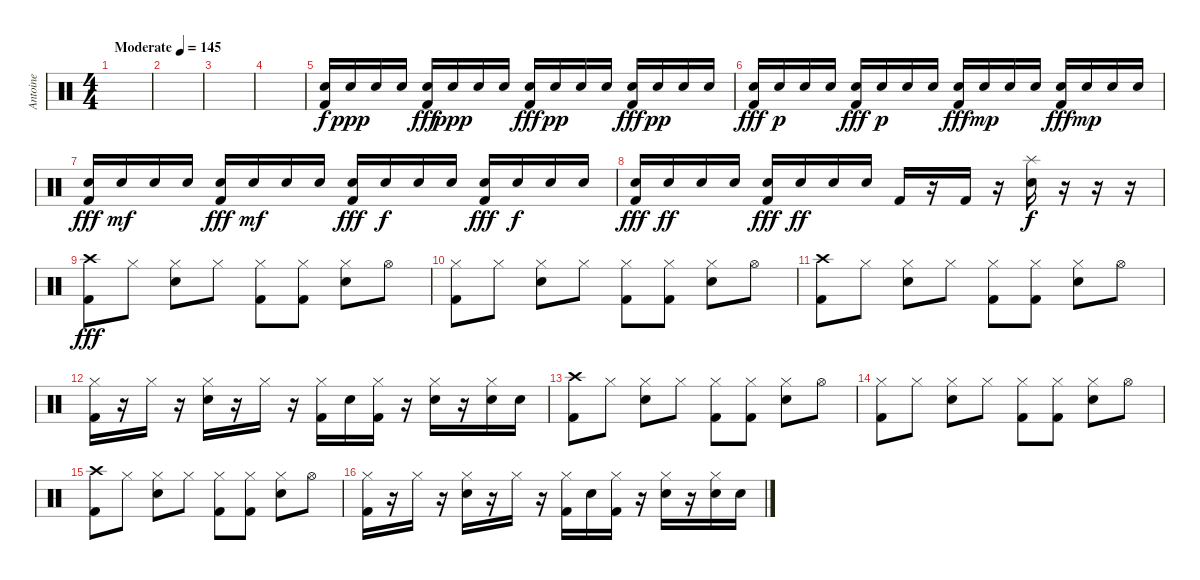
\track ("Antoine" "Antoine") {instrument percussion}
\staff {score}
\articulation defaults
\ts (4 4)
\tempo (145 "Moderate")
\clef neutral
\ks c
|
|
|
|
("Snare (hit) 2" "Kick (hit) 2").16 "Snare (hit) 2".16{dy ppp} "Snare (hit) 2".16 "Snare (hit) 2".16 ("Snare (hit) 2" "Kick (hit) 2").16{dy fff} "Snare (hit) 2".16{dy ppp} "Snare (hit) 2".16 "Snare (hit) 2".16 ("Snare (hit) 2" "Kick (hit) 2").16{dy fff} "Snare (hit) 2".16{dy pp} "Snare (hit) 2".16 "Snare (hit) 2".16 ("Snare (hit) 2" "Kick (hit) 2").16{dy fff} "Snare (hit) 2".16{dy pp} "Snare (hit) 2".16 "Snare (hit) 2".16 |
("Snare (hit) 2" "Kick (hit) 2").16{dy fff} "Snare (hit) 2".16{dy p} "Snare (hit) 2".16 "Snare (hit) 2".16 ("Snare (hit) 2" "Kick (hit) 2").16{dy fff} "Snare (hit) 2".16{dy p} "Snare (hit) 2".16 "Snare (hit) 2".16 ("Snare (hit) 2" "Kick (hit) 2").16{dy fff} "Snare (hit) 2".16{dy mp} "Snare (hit) 2".16 "Snare (hit) 2".16 ("Snare (hit) 2" "Kick (hit) 2").16{dy fff} "Snare (hit) 2".16{dy mp} "Snare (hit) 2".16 "Snare (hit) 2".16 |
("Snare (hit) 2" "Kick (hit) 2").16{dy fff} "Snare (hit) 2".16{dy mf} "Snare (hit) 2".16 "Snare (hit) 2".16 ("Snare (hit) 2" "Kick (hit) 2").16{dy fff} "Snare (hit) 2".16{dy mf} "Snare (hit) 2".16 "Snare (hit) 2".16 ("Snare (hit) 2" "Kick (hit) 2").16{dy fff} "Snare (hit) 2".16{dy f} "Snare (hit) 2".16 "Snare (hit) 2".16 ("Snare (hit) 2" "Kick (hit) 2").16{dy fff} "Snare (hit) 2".16{dy f} "Snare (hit) 2".16 "Snare (hit) 2".16 |
("Snare (hit) 2" "Kick (hit) 2").16{dy fff} "Snare (hit) 2".16{dy ff} "Snare (hit) 2".16 "Snare (hit) 2".16 ("Snare (hit) 2" "Kick (hit) 2").16{dy fff} "Snare (hit) 2".16{dy ff} "Snare (hit) 2".16 "Snare (hit) 2".16 "Kick (hit) 2".16 r.16 "Kick (hit) 2".16 r.16 ("Splash (hit)" "Electric Snare (hit)").16{dy f} r.16 r.16 r.16 |
("Crash high (hit)" "Kick (hit) 2").8{dy fff} "Hi-Hat (closed)".8 ("Hi-Hat (closed)" "Snare (hit) 2").8 "Hi-Hat (closed)".8 ("Hi-Hat (closed)" "Kick (hit) 2").8 ("Hi-Hat (closed)" "Kick (hit) 2").8 ("Hi-Hat (closed)" "Snare (hit) 2").8 "Hi-Hat (open)".8 |
("Hi-Hat (closed)" "Kick (hit) 2").8 "Hi-Hat (closed)".8 ("Hi-Hat (closed)" "Snare (hit) 2").8 "Hi-Hat (closed)".8 ("Hi-Hat (closed)" "Kick (hit) 2").8 ("Hi-Hat (closed)" "Kick (hit) 2").8 ("Hi-Hat (closed)" "Snare (hit) 2").8 "Hi-Hat (open)".8 |
("Crash high (hit)" "Kick (hit) 2").8 "Hi-Hat (closed)".8 ("Hi-Hat (closed)" "Snare (hit) 2").8 "Hi-Hat (closed)".8 ("Hi-Hat (closed)" "Kick (hit) 2").8 ("Hi-Hat (closed)" "Kick (hit) 2").8 ("Hi-Hat (closed)" "Snare (hit) 2").8 "Hi-Hat (open)".8 |
("Hi-Hat (closed)" "Kick (hit) 2").16 r.16 "Hi-Hat (closed)".16 r.16 ("Hi-Hat (closed)" "Snare (hit) 2").16 r.16 "Hi-Hat (closed)".16 r.16 ("Hi-Hat (closed)" "Kick (hit) 2").16 "Snare (hit) 2".16 ("Hi-Hat (closed)" "Kick (hit) 2").16 r.16 ("Hi-Hat (closed)" "Snare (hit) 2").16 r.16 ("Hi-Hat (closed)" "Snare (hit) 2").16 "Snare (hit) 2".16 |
("Crash high (hit)" "Kick (hit) 2").8 "Hi-Hat (closed)".8 ("Hi-Hat (closed)" "Snare (hit) 2").8 "Hi-Hat (closed)".8 ("Hi-Hat (closed)" "Kick (hit) 2").8 ("Hi-Hat (closed)" "Kick (hit) 2").8 ("Hi-Hat (closed)" "Snare (hit) 2").8 "Hi-Hat (open)".8 |
("Hi-Hat (closed)" "Kick (hit) 2").8 "Hi-Hat (closed)".8 ("Hi-Hat (closed)" "Snare (hit) 2").8 "Hi-Hat (closed)".8 ("Hi-Hat (closed)" "Kick (hit) 2").8 ("Hi-Hat (closed)" "Kick (hit) 2").8 ("Hi-Hat (closed)" "Snare (hit) 2").8 "Hi-Hat (open)".8 |
("Crash high (hit)" "Kick (hit) 2").8 "Hi-Hat (closed)".8 ("Hi-Hat (closed)" "Snare (hit) 2").8 "Hi-Hat (closed)".8 ("Hi-Hat (closed)" "Kick (hit) 2").8 ("Hi-Hat (closed)" "Kick (hit) 2").8 ("Hi-Hat (closed)" "Snare (hit) 2").8 "Hi-Hat (open)".8 |
("Hi-Hat (closed)" "Kick (hit) 2").16 r.16 "Hi-Hat (closed)".16 r.16 ("Hi-Hat (closed)" "Snare (hit) 2").16 r.16 "Hi-Hat (closed)".16 r.16 ("Hi-Hat (closed)" "Kick (hit) 2").16 "Snare (hit) 2".16 ("Hi-Hat (closed)" "Kick (hit) 2").16 r.16 ("Hi-Hat (closed)" "Snare (hit) 2").16 r.16 ("Hi-Hat (closed)" "Snare (hit) 2").16 "Snare (hit) 2".16
